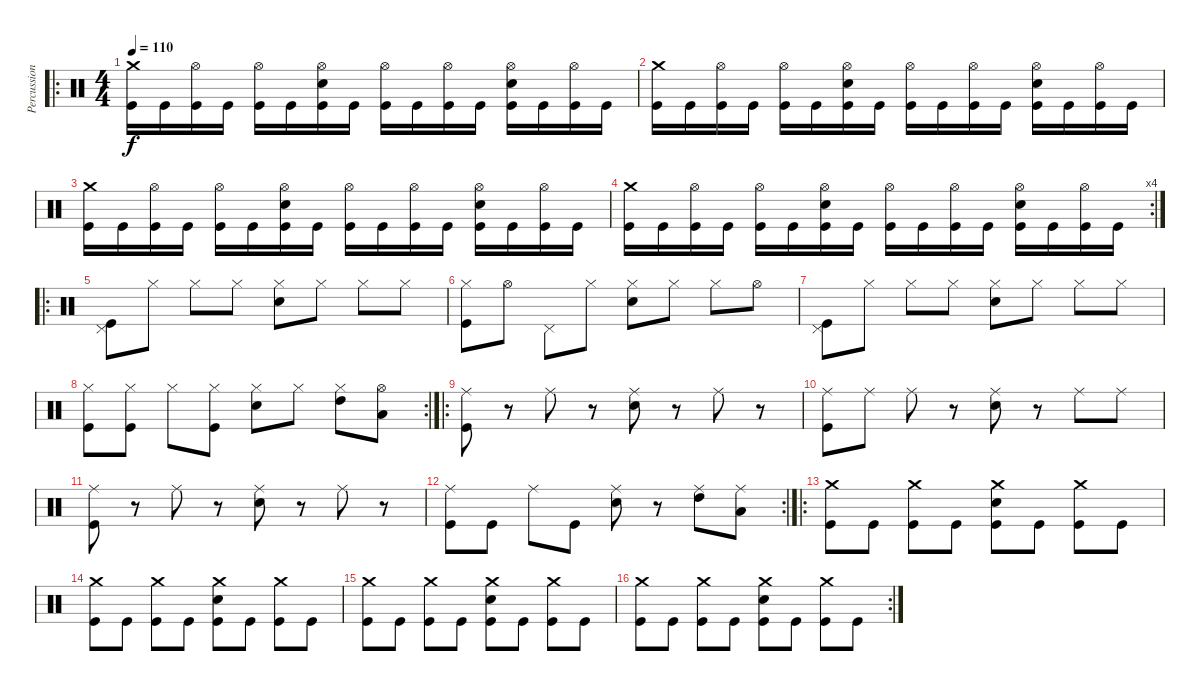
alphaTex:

\track ("Percussion" "Percussion") {instrument percussion}
\staff {score}
\articulation defaults
\ro
\ts (4 4)
\tempo 110
\clef neutral
\ks c
("Crash medium (hit)" "Kick (hit)").16{dy f} "Kick (hit)".16 ("Hi-Hat (open)" "Kick (hit)").16 "Kick (hit)".16 ("Hi-Hat (open)" "Kick (hit)").16 "Kick (hit)".16 ("Hi-Hat (open)" "Snare (hit) 2" "Kick (hit)").16 "Kick (hit)".16 ("Hi-Hat (open)" "Kick (hit)").16 "Kick (hit)".16 ("Hi-Hat (open)" "Kick (hit)").16 "Kick (hit)".16 ("Hi-Hat (open)" "Snare (hit) 2" "Kick (hit)").16 "Kick (hit)".16 ("Hi-Hat (open)" "Kick (hit)").16 "Kick (hit)".16 |
("Crash medium (hit)" "Kick (hit)").16 "Kick (hit)".16 ("Hi-Hat (open)" "Kick (hit)").16 "Kick (hit)".16 ("Hi-Hat (open)" "Kick (hit)").16 "Kick (hit)".16 ("Hi-Hat (open)" "Snare (hit) 2" "Kick (hit)").16 "Kick (hit)".16 ("Hi-Hat (open)" "Kick (hit)").16 "Kick (hit)".16 ("Hi-Hat (open)" "Kick (hit)").16 "Kick (hit)".16 ("Hi-Hat (open)" "Snare (hit) 2" "Kick (hit)").16 "Kick (hit)".16 ("Hi-Hat (open)" "Kick (hit)").16 "Kick (hit)".16 |
("Crash medium (hit)" "Kick (hit)").16 "Kick (hit)".16 ("Hi-Hat (open)" "Kick (hit)").16 "Kick (hit)".16 ("Hi-Hat (open)" "Kick (hit)").16 "Kick (hit)".16 ("Hi-Hat (open)" "Snare (hit) 2" "Kick (hit)").16 "Kick (hit)".16 ("Hi-Hat (open)" "Kick (hit)").16 "Kick (hit)".16 ("Hi-Hat (open)" "Kick (hit)").16 "Kick (hit)".16 ("Hi-Hat (open)" "Snare (hit) 2" "Kick (hit)").16 "Kick (hit)".16 ("Hi-Hat (open)" "Kick (hit)").16 "Kick (hit)".16 |
\rc 4
("Crash medium (hit)" "Kick (hit)").16 "Kick (hit)".16 ("Hi-Hat (open)" "Kick (hit)").16 "Kick (hit)".16 ("Hi-Hat (open)" "Kick (hit)").16 "Kick (hit)".16 ("Hi-Hat (open)" "Snare (hit) 2" "Kick (hit)").16 "Kick (hit)".16 ("Hi-Hat (open)" "Kick (hit)").16 "Kick (hit)".16 ("Hi-Hat (open)" "Kick (hit)").16 "Kick (hit)".16 ("Hi-Hat (open)" "Snare (hit) 2" "Kick (hit)").16 "Kick (hit)".16 ("Hi-Hat (open)" "Kick (hit)").16 "Kick (hit)".16 |
\ro
("Pedal Hi-Hat (hit)" "Kick (hit)").8 "Hi-Hat (closed)".8 "Hi-Hat (closed)".8 "Hi-Hat (closed)".8 ("Hi-Hat (closed)" "Snare (hit) 2").8 "Hi-Hat (closed)".8 "Hi-Hat (closed)".8 "Hi-Hat (closed)".8 |
("Hi-Hat (closed)" "Kick (hit)").8 "Hi-Hat (open)".8 "Pedal Hi-Hat (hit)".8 "Hi-Hat (closed)".8 ("Hi-Hat (closed)" "Snare (hit) 2").8 "Hi-Hat (closed)".8 "Hi-Hat (closed)".8 "Hi-Hat (open)".8 |
("Pedal Hi-Hat (hit)" "Kick (hit)").8 "Hi-Hat (closed)".8 "Hi-Hat (closed)".8 "Hi-Hat (closed)".8 ("Hi-Hat (closed)" "Snare (hit) 2").8 "Hi-Hat (closed)".8 "Hi-Hat (closed)".8 "Hi-Hat (closed)".8 |
\rc 2
("Hi-Hat (closed)" "Kick (hit)").8 ("Hi-Hat (closed)" "Kick (hit)").8 "Hi-Hat (closed)".8 ("Hi-Hat (closed)" "Kick (hit)").8 ("Hi-Hat (closed)" "Snare (hit) 2").8 "Hi-Hat (closed)".8 ("Hi-Hat (closed)" "High Tom (hit)").8 ("Hi-Hat (open)" "Low Tom (hit)").8 |
\ro
("Ride (middle)" "Kick (hit)").8 r.8 "Ride (middle)".8 r.8 ("Ride (middle)" "Snare (hit) 2").8 r.8 "Ride (middle)".8 r.8 |
("Ride (middle)" "Kick (hit)").8 "Ride (middle)".8 "Ride (middle)".8 r.8 ("Ride (middle)" "Snare (hit) 2").8 r.8 "Ride (middle)".8 "Ride (middle)".8 |
("Ride (middle)" "Kick (hit)").8 r.8 "Ride (middle)".8 r.8 ("Ride (middle)" "Snare (hit) 2").8 r.8 "Ride (middle)".8 r.8 |
\rc 2
("Ride (middle)" "Kick (hit)").8 "Kick (hit)".8 "Ride (middle)".8 "Kick (hit)".8 ("Ride (middle)" "Snare (hit) 2").8 r.8 ("Ride (middle)" "High Tom (hit)").8 ("Ride (middle)" "Low Tom (hit)").8 |
\ro
("Crash medium (hit)" "Kick (hit)").8 "Kick (hit)".8 ("Crash medium (hit)" "Kick (hit)").8 "Kick (hit)".8 ("Crash medium (hit)" "Snare (hit) 2" "Kick (hit)").8 "Kick (hit)".8 ("Crash medium (hit)" "Kick (hit)").8 "Kick (hit)".8 |
("Crash medium (hit)" "Kick (hit)").8 "Kick (hit)".8 ("Crash medium (hit)" "Kick (hit)").8 "Kick (hit)".8 ("Crash medium (hit)" "Snare (hit) 2" "Kick (hit)").8 "Kick (hit)".8 ("Crash medium (hit)" "Kick (hit)").8 "Kick (hit)".8 |
("Crash medium (hit)" "Kick (hit)").8 "Kick (hit)".8 ("Crash medium (hit)" "Kick (hit)").8 "Kick (hit)".8 ("Crash medium (hit)" "Snare (hit) 2" "Kick (hit)").8 "Kick (hit)".8 ("Crash medium (hit)" "Kick (hit)").8 "Kick (hit)".8 |
\rc 2
("Crash medium (hit)" "Kick (hit)").8 "Kick (hit)".8 ("Crash medium (hit)" "Kick (hit)").8 "Kick (hit)".8 ("Crash medium (hit)" "Snare (hit) 2" "Kick (hit)").8 "Kick (hit)".8 ("Crash medium (hit)" "Kick (hit)").8 "Kick (hit)".8
